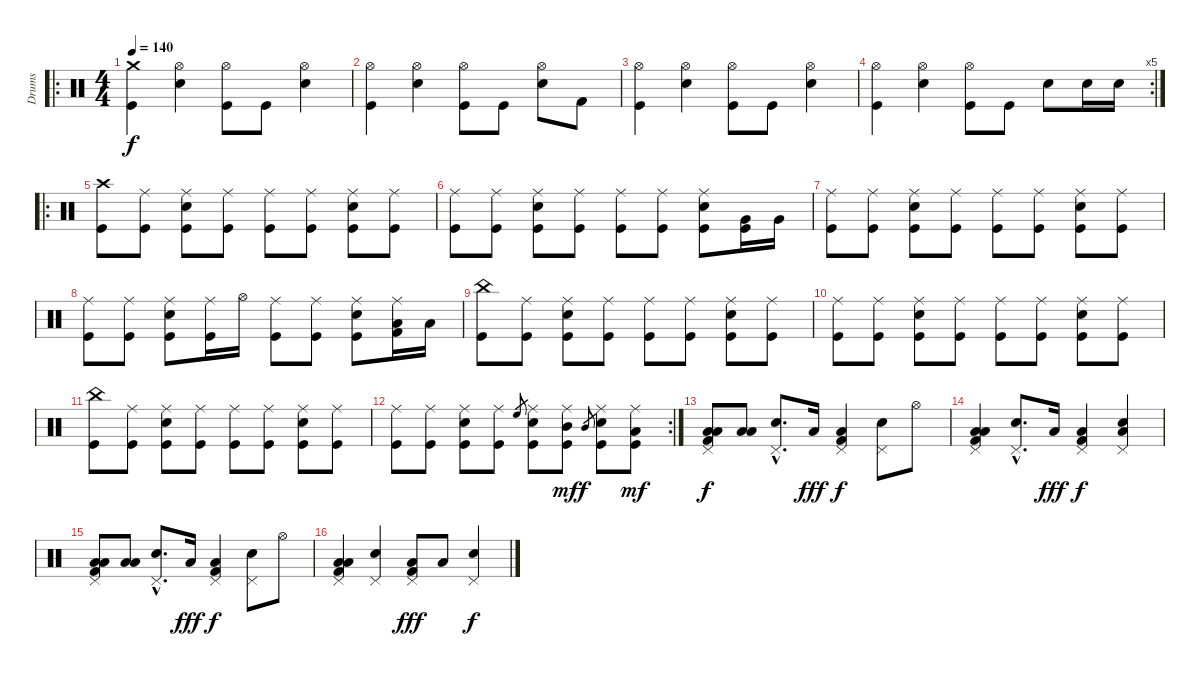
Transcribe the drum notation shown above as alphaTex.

\track ("Drums" "Drums") {instrument percussion}
\staff {score}
\articulation defaults
\ro
\ts (4 4)
\tempo 140
\clef neutral
\ks c
("Crash medium (hit)" "Kick (hit)").4{dy f} ("Hi-Hat (open)" "Snare (hit) 2").4 ("Hi-Hat (open)" "Kick (hit)").8 "Kick (hit)".8 ("Hi-Hat (open)" "Snare (hit) 2").4 |
("Hi-Hat (open)" "Kick (hit)").4 ("Hi-Hat (open)" "Snare (hit) 2").4 ("Hi-Hat (open)" "Kick (hit)").8 "Kick (hit)".8 ("Hi-Hat (open)" "Snare (hit) 2").8 "Kick (hit) 2".8 |
("Hi-Hat (open)" "Kick (hit)").4 ("Hi-Hat (open)" "Snare (hit) 2").4 ("Hi-Hat (open)" "Kick (hit)").8 "Kick (hit)".8 ("Hi-Hat (open)" "Snare (hit) 2").4 |
\rc 5
("Hi-Hat (open)" "Kick (hit)").4 ("Hi-Hat (open)" "Snare (hit) 2").4 ("Hi-Hat (open)" "Kick (hit)").8 "Kick (hit)".8 "Snare (hit) 2".8 "Snare (hit) 2".16 "Snare (hit) 2".16 |
\ro
("Crash high (hit)" "Kick (hit)").8 ("Ride (middle)" "Kick (hit)").8 ("Ride (middle)" "Snare (hit) 2" "Kick (hit)").8 ("Ride (middle)" "Kick (hit)").8 ("Ride (middle)" "Kick (hit)").8 ("Ride (middle)" "Kick (hit)").8 ("Ride (middle)" "Snare (hit) 2" "Kick (hit)").8 ("Ride (middle)" "Kick (hit)").8 |
("Ride (middle)" "Kick (hit)").8 ("Ride (middle)" "Kick (hit)").8 ("Ride (middle)" "Snare (hit) 2" "Kick (hit)").8 ("Ride (middle)" "Kick (hit)").8 ("Ride (middle)" "Kick (hit)").8 ("Ride (middle)" "Kick (hit)").8 ("Ride (middle)" "Snare (hit) 2" "Kick (hit)").8 ("Very Low Tom (hit)" "Kick (hit)").16 "Very Low Tom (hit)".16 |
("Ride (middle)" "Kick (hit)").8 ("Ride (middle)" "Kick (hit)").8 ("Ride (middle)" "Snare (hit) 2" "Kick (hit)").8 ("Ride (middle)" "Kick (hit)").8 ("Ride (middle)" "Kick (hit)").8 ("Ride (middle)" "Kick (hit)").8 ("Ride (middle)" "Snare (hit) 2" "Kick (hit)").8 ("Ride (middle)" "Kick (hit)").8 |
("Ride (middle)" "Kick (hit)").8 ("Ride (middle)" "Kick (hit)").8 ("Ride (middle)" "Snare (hit) 2" "Kick (hit)").8 ("Ride (middle)" "Kick (hit)").16 "Hi-Hat (open)".16 ("Ride (middle)" "Kick (hit)").8 ("Ride (middle)" "Kick (hit)").8 ("Ride (middle)" "Snare (hit) 2" "Kick (hit)").8 ("Ride (middle)" "Low Floor Tom (hit)" "Kick (hit) 2").16 "Low Floor Tom (hit)".16 |
("China (hit)" "Kick (hit)").8 ("Ride (middle)" "Kick (hit)").8 ("Ride (middle)" "Snare (hit) 2" "Kick (hit)").8 ("Ride (middle)" "Kick (hit)").8 ("Ride (middle)" "Kick (hit)").8 ("Ride (middle)" "Kick (hit)").8 ("Ride (middle)" "Snare (hit) 2" "Kick (hit)").8 ("Ride (middle)" "Kick (hit)").8 |
("Ride (middle)" "Kick (hit)").8 ("Ride (middle)" "Kick (hit)").8 ("Ride (middle)" "Snare (hit) 2" "Kick (hit)").8 ("Ride (middle)" "Kick (hit)").8 ("Ride (middle)" "Kick (hit)").8 ("Ride (middle)" "Kick (hit)").8 ("Ride (middle)" "Snare (hit) 2" "Kick (hit)").8 ("Ride (middle)" "Kick (hit)").8 |
("China (hit)" "Kick (hit)").8 ("Ride (middle)" "Kick (hit)").8 ("Ride (middle)" "Snare (hit) 2" "Kick (hit)").8 ("Ride (middle)" "Kick (hit)").8 ("Ride (middle)" "Kick (hit)").8 ("Ride (middle)" "Kick (hit)").8 ("Ride (middle)" "Snare (hit) 2" "Kick (hit)").8 ("Ride (middle)" "Kick (hit)").8 |
\rc 2
("Ride (middle)" "Kick (hit)").8 ("Ride (middle)" "Kick (hit)").8 ("Ride (middle)" "Snare (hit) 2" "Kick (hit)").8 ("Ride (middle)" "Kick (hit)").8 "High Floor Tom (hit)".8{gr} ("Ride (middle)" "Snare (hit) 2" "Kick (hit)").8 ("Ride (middle)" "Mid Tom (hit)" "Kick (hit)").8{dy mf} "Mid Tom (hit)".8{gr dy f} ("Ride (middle)" "Snare (hit) 2" "Kick (hit)").8 ("Ride (middle)" "Low Floor Tom (hit)" "Kick (hit)").8{dy mf} |
("Kick (hit) 2" "Low Tom (hit)" "Low Floor Tom (hit)" "Pedal Hi-Hat (hit)").8{dy f} ("Low Tom (hit)" "Low Floor Tom (hit)").8 ("Snare (hit) 2"{hac} "Pedal Hi-Hat (hit)"{hac}).8{d} "Low Floor Tom (hit)".16{dy fff} ("Kick (hit) 2" "Low Floor Tom (hit)" "Pedal Hi-Hat (hit)").4{dy f} ("Snare (hit) 2" "Pedal Hi-Hat (hit)").8 "Hi-Hat (open)".8 |
("Kick (hit) 2" "Low Floor Tom (hit)" "Low Tom (hit)" "Pedal Hi-Hat (hit)").4 ("Snare (hit) 2"{hac} "Pedal Hi-Hat (hit)"{hac}).8{d} "Low Floor Tom (hit)".16{dy fff} ("Kick (hit) 2" "Low Floor Tom (hit)" "Pedal Hi-Hat (hit)").4{dy f} ("Snare (hit) 2" "Low Floor Tom (hit)" "Pedal Hi-Hat (hit)").4 |
("Kick (hit) 2" "Low Tom (hit)" "Low Floor Tom (hit)" "Pedal Hi-Hat (hit)").8 ("Low Tom (hit)" "Low Floor Tom (hit)").8 ("Snare (hit) 2"{hac} "Pedal Hi-Hat (hit)"{hac}).8{d} "Low Floor Tom (hit)".16{dy fff} ("Kick (hit) 2" "Low Floor Tom (hit)" "Pedal Hi-Hat (hit)").4{dy f} ("Snare (hit) 2" "Pedal Hi-Hat (hit)").8 "Hi-Hat (open)".8 |
("Kick (hit) 2" "Low Floor Tom (hit)" "Low Tom (hit)" "Pedal Hi-Hat (hit)").4 ("Snare (hit) 2" "Pedal Hi-Hat (hit)").4 ("Kick (hit) 2" "Low Floor Tom (hit)" "Pedal Hi-Hat (hit)").8{dy fff} "Low Floor Tom (hit)".8 ("Snare (hit) 2" "Pedal Hi-Hat (hit)").4{dy f}
